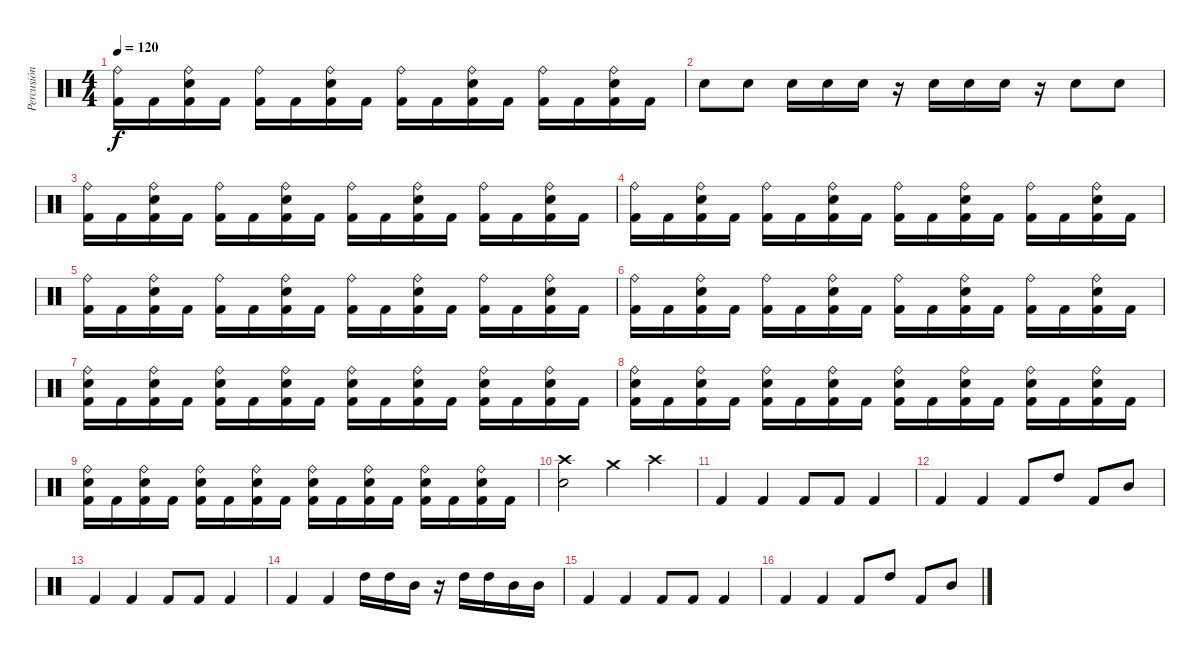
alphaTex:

\track ("Percusión" "Percusión") {instrument percussion}
\staff {score}
\articulation defaults
\ts (4 4)
\tempo 120
\clef neutral
\ks c
("Ride (bell)" "Kick (hit) 2").16{dy f} "Kick (hit) 2".16 ("Ride (bell)" "Electric Snare (hit)" "Kick (hit) 2").16 "Kick (hit) 2".16 ("Ride (bell)" "Kick (hit) 2").16 "Kick (hit) 2".16 ("Ride (bell)" "Electric Snare (hit)" "Kick (hit) 2").16 "Kick (hit) 2".16 ("Ride (bell)" "Kick (hit) 2").16 "Kick (hit) 2".16 ("Ride (bell)" "Electric Snare (hit)" "Kick (hit) 2").16 "Kick (hit) 2".16 ("Ride (bell)" "Kick (hit) 2").16 "Kick (hit) 2".16 ("Ride (bell)" "Electric Snare (hit)" "Kick (hit) 2").16 "Kick (hit) 2".16 |
"Electric Snare (hit)".8 "Electric Snare (hit)".8 "Electric Snare (hit)".16 "Electric Snare (hit)".16 "Electric Snare (hit)".16 r.16 "Electric Snare (hit)".16 "Electric Snare (hit)".16 "Electric Snare (hit)".16 r.16 "Electric Snare (hit)".8 "Electric Snare (hit)".8 |
("Ride (bell)" "Kick (hit) 2").16 "Kick (hit) 2".16 ("Ride (bell)" "Electric Snare (hit)" "Kick (hit) 2").16 "Kick (hit) 2".16 ("Ride (bell)" "Kick (hit) 2").16 "Kick (hit) 2".16 ("Ride (bell)" "Electric Snare (hit)" "Kick (hit) 2").16 "Kick (hit) 2".16 ("Ride (bell)" "Kick (hit) 2").16 "Kick (hit) 2".16 ("Ride (bell)" "Electric Snare (hit)" "Kick (hit) 2").16 "Kick (hit) 2".16 ("Ride (bell)" "Kick (hit) 2").16 "Kick (hit) 2".16 ("Ride (bell)" "Electric Snare (hit)" "Kick (hit) 2").16 "Kick (hit) 2".16 |
("Ride (bell)" "Kick (hit) 2").16 "Kick (hit) 2".16 ("Ride (bell)" "Electric Snare (hit)" "Kick (hit) 2").16 "Kick (hit) 2".16 ("Ride (bell)" "Kick (hit) 2").16 "Kick (hit) 2".16 ("Ride (bell)" "Electric Snare (hit)" "Kick (hit) 2").16 "Kick (hit) 2".16 ("Ride (bell)" "Kick (hit) 2").16 "Kick (hit) 2".16 ("Ride (bell)" "Electric Snare (hit)" "Kick (hit) 2").16 "Kick (hit) 2".16 ("Ride (bell)" "Kick (hit) 2").16 "Kick (hit) 2".16 ("Ride (bell)" "Electric Snare (hit)" "Kick (hit) 2").16 "Kick (hit) 2".16 |
("Ride (bell)" "Kick (hit) 2").16 "Kick (hit) 2".16 ("Ride (bell)" "Electric Snare (hit)" "Kick (hit) 2").16 "Kick (hit) 2".16 ("Ride (bell)" "Kick (hit) 2").16 "Kick (hit) 2".16 ("Ride (bell)" "Electric Snare (hit)" "Kick (hit) 2").16 "Kick (hit) 2".16 ("Ride (bell)" "Kick (hit) 2").16 "Kick (hit) 2".16 ("Ride (bell)" "Electric Snare (hit)" "Kick (hit) 2").16 "Kick (hit) 2".16 ("Ride (bell)" "Kick (hit) 2").16 "Kick (hit) 2".16 ("Ride (bell)" "Electric Snare (hit)" "Kick (hit) 2").16 "Kick (hit) 2".16 |
("Ride (bell)" "Kick (hit) 2").16 "Kick (hit) 2".16 ("Ride (bell)" "Electric Snare (hit)" "Kick (hit) 2").16 "Kick (hit) 2".16 ("Ride (bell)" "Kick (hit) 2").16 "Kick (hit) 2".16 ("Ride (bell)" "Electric Snare (hit)" "Kick (hit) 2").16 "Kick (hit) 2".16 ("Ride (bell)" "Kick (hit) 2").16 "Kick (hit) 2".16 ("Ride (bell)" "Electric Snare (hit)" "Kick (hit) 2").16 "Kick (hit) 2".16 ("Ride (bell)" "Kick (hit) 2").16 "Kick (hit) 2".16 ("Ride (bell)" "Electric Snare (hit)" "Kick (hit) 2").16 "Kick (hit) 2".16 |
("Ride (bell)" "Electric Snare (hit)" "Kick (hit) 2").16 "Kick (hit) 2".16 ("Ride (bell)" "Electric Snare (hit)" "Kick (hit) 2").16 "Kick (hit) 2".16 ("Ride (bell)" "Electric Snare (hit)" "Kick (hit) 2").16 "Kick (hit) 2".16 ("Ride (bell)" "Electric Snare (hit)" "Kick (hit) 2").16 "Kick (hit) 2".16 ("Ride (bell)" "Electric Snare (hit)" "Kick (hit) 2").16 "Kick (hit) 2".16 ("Ride (bell)" "Electric Snare (hit)" "Kick (hit) 2").16 "Kick (hit) 2".16 ("Ride (bell)" "Electric Snare (hit)" "Kick (hit) 2").16 "Kick (hit) 2".16 ("Ride (bell)" "Electric Snare (hit)" "Kick (hit) 2").16 "Kick (hit) 2".16 |
("Ride (bell)" "Electric Snare (hit)" "Kick (hit) 2").16 "Kick (hit) 2".16 ("Ride (bell)" "Electric Snare (hit)" "Kick (hit) 2").16 "Kick (hit) 2".16 ("Ride (bell)" "Electric Snare (hit)" "Kick (hit) 2").16 "Kick (hit) 2".16 ("Ride (bell)" "Electric Snare (hit)" "Kick (hit) 2").16 "Kick (hit) 2".16 ("Ride (bell)" "Electric Snare (hit)" "Kick (hit) 2").16 "Kick (hit) 2".16 ("Ride (bell)" "Electric Snare (hit)" "Kick (hit) 2").16 "Kick (hit) 2".16 ("Ride (bell)" "Electric Snare (hit)" "Kick (hit) 2").16 "Kick (hit) 2".16 ("Ride (bell)" "Electric Snare (hit)" "Kick (hit) 2").16 "Kick (hit) 2".16 |
("Ride (bell)" "Electric Snare (hit)" "Kick (hit) 2").16 "Kick (hit) 2".16 ("Ride (bell)" "Electric Snare (hit)" "Kick (hit) 2").16 "Kick (hit) 2".16 ("Ride (bell)" "Electric Snare (hit)" "Kick (hit) 2").16 "Kick (hit) 2".16 ("Ride (bell)" "Electric Snare (hit)" "Kick (hit) 2").16 "Kick (hit) 2".16 ("Ride (bell)" "Electric Snare (hit)" "Kick (hit) 2").16 "Kick (hit) 2".16 ("Ride (bell)" "Electric Snare (hit)" "Kick (hit) 2").16 "Kick (hit) 2".16 ("Ride (bell)" "Electric Snare (hit)" "Kick (hit) 2").16 "Kick (hit) 2".16 ("Ride (bell)" "Electric Snare (hit)" "Kick (hit) 2").16 "Kick (hit) 2".16 |
("Crash high (hit)" "Electric Snare (hit)").2 "Crash medium (hit)".4 "Crash high (hit)".4 |
"Kick (hit) 2".4 "Kick (hit) 2".4 "Kick (hit) 2".8 "Kick (hit) 2".8 "Kick (hit) 2".4 |
"Kick (hit) 2".4 "Kick (hit) 2".4 "Kick (hit) 2".8 "High Tom (hit)".8 "Kick (hit) 2".8 "Mid Tom (hit)".8 |
"Kick (hit) 2".4 "Kick (hit) 2".4 "Kick (hit) 2".8 "Kick (hit) 2".8 "Kick (hit) 2".4 |
"Kick (hit) 2".4 "Kick (hit) 2".4 "High Tom (hit)".16 "High Tom (hit)".16 "Mid Tom (hit)".16 r.16 "High Tom (hit)".16 "High Tom (hit)".16 "Mid Tom (hit)".16 "Mid Tom (hit)".16 |
"Kick (hit) 2".4 "Kick (hit) 2".4 "Kick (hit) 2".8 "Kick (hit) 2".8 "Kick (hit) 2".4 |
"Kick (hit) 2".4 "Kick (hit) 2".4 "Kick (hit) 2".8 "High Tom (hit)".8 "Kick (hit) 2".8 "Mid Tom (hit)".8
